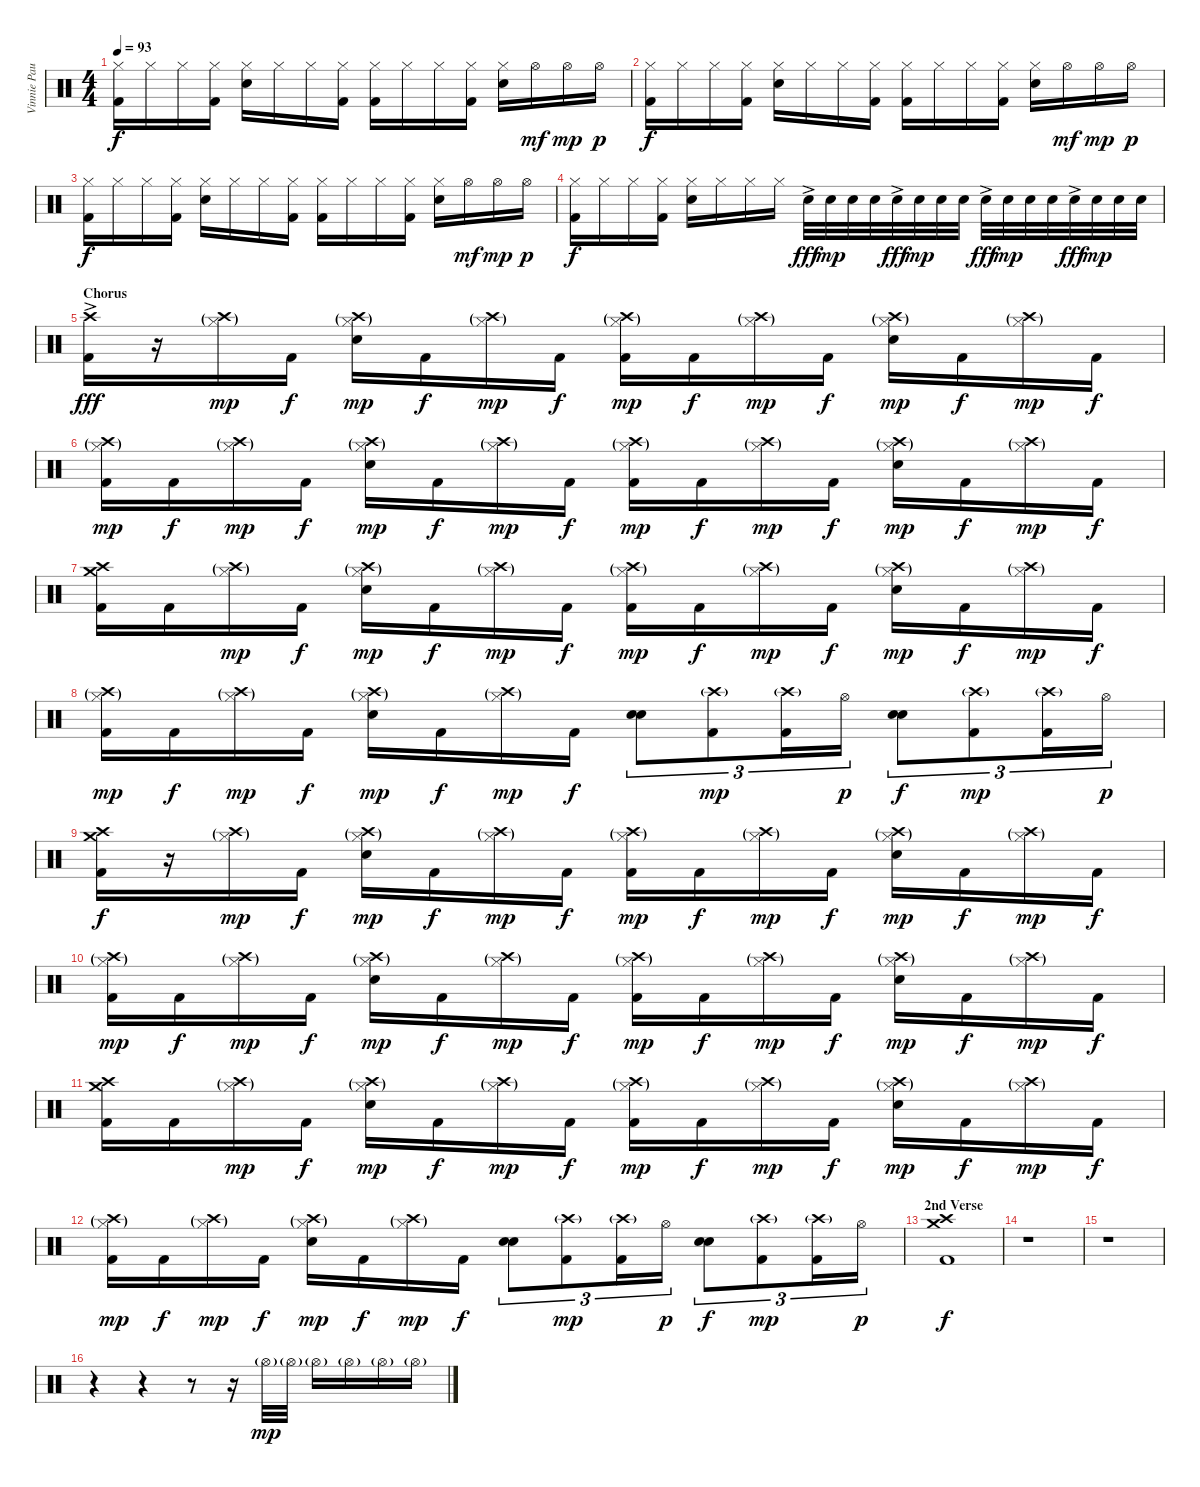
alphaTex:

\track ("Vinnie Paul" "Vinnie Pau") {instrument percussion}
\staff {score}
\articulation defaults
\ts (4 4)
\tempo 93
\clef neutral
\ks c
("Hi-Hat (closed)" "Kick (hit) 2").16{dy f} "Hi-Hat (closed)".16 "Hi-Hat (closed)".16 ("Hi-Hat (closed)" "Kick (hit) 2").16 ("Hi-Hat (closed)" "Electric Snare (hit)").16 "Hi-Hat (closed)".16 "Hi-Hat (closed)".16 ("Hi-Hat (closed)" "Kick (hit) 2").16 ("Hi-Hat (closed)" "Kick (hit) 2").16 "Hi-Hat (closed)".16 "Hi-Hat (closed)".16 ("Hi-Hat (closed)" "Kick (hit) 2").16 ("Hi-Hat (closed)" "Electric Snare (hit)").16 "Hi-Hat (open)".16{dy mf} "Hi-Hat (open)".16{dy mp} "Hi-Hat (open)".16{dy p} |
("Hi-Hat (closed)" "Kick (hit) 2").16{dy f} "Hi-Hat (closed)".16 "Hi-Hat (closed)".16 ("Hi-Hat (closed)" "Kick (hit) 2").16 ("Hi-Hat (closed)" "Electric Snare (hit)").16 "Hi-Hat (closed)".16 "Hi-Hat (closed)".16 ("Hi-Hat (closed)" "Kick (hit) 2").16 ("Hi-Hat (closed)" "Kick (hit) 2").16 "Hi-Hat (closed)".16 "Hi-Hat (closed)".16 ("Hi-Hat (closed)" "Kick (hit) 2").16 ("Hi-Hat (closed)" "Electric Snare (hit)").16 "Hi-Hat (open)".16{dy mf} "Hi-Hat (open)".16{dy mp} "Hi-Hat (open)".16{dy p} |
("Hi-Hat (closed)" "Kick (hit) 2").16{dy f} "Hi-Hat (closed)".16 "Hi-Hat (closed)".16 ("Hi-Hat (closed)" "Kick (hit) 2").16 ("Hi-Hat (closed)" "Electric Snare (hit)").16 "Hi-Hat (closed)".16 "Hi-Hat (closed)".16 ("Hi-Hat (closed)" "Kick (hit) 2").16 ("Hi-Hat (closed)" "Kick (hit) 2").16 "Hi-Hat (closed)".16 "Hi-Hat (closed)".16 ("Hi-Hat (closed)" "Kick (hit) 2").16 ("Hi-Hat (closed)" "Electric Snare (hit)").16 "Hi-Hat (open)".16{dy mf} "Hi-Hat (open)".16{dy mp} "Hi-Hat (open)".16{dy p} |
("Hi-Hat (closed)" "Kick (hit) 2").16{dy f} "Hi-Hat (closed)".16 "Hi-Hat (closed)".16 ("Hi-Hat (closed)" "Kick (hit) 2").16 ("Hi-Hat (closed)" "Electric Snare (hit)").16 "Hi-Hat (closed)".16 "Hi-Hat (closed)".16 "Hi-Hat (closed)".16 "Electric Snare (hit)"{ac}.32{dy fff} "Electric Snare (hit)".32{dy mp} "Electric Snare (hit)".32 "Electric Snare (hit)".32 "Electric Snare (hit)"{ac}.32{dy fff} "Electric Snare (hit)".32{dy mp} "Electric Snare (hit)".32 "Electric Snare (hit)".32 "Electric Snare (hit)"{ac}.32{dy fff} "Electric Snare (hit)".32{dy mp} "Electric Snare (hit)".32 "Electric Snare (hit)".32 "Electric Snare (hit)"{ac}.32{dy fff} "Electric Snare (hit)".32{dy mp} "Electric Snare (hit)".32 "Electric Snare (hit)".32 |
\section ("" "Chorus")
("Crash high (hit)" "Kick (hit) 2"{ac}).16{dy fff} r.16 ("Crash high (hit)"{g} "Hi-Hat (closed)"{g}).16{dy mp} "Kick (hit) 2".16{dy f} ("Crash high (hit)"{g} "Hi-Hat (closed)"{g} "Electric Snare (hit)").16{dy mp} "Kick (hit) 2".16{dy f} ("Crash high (hit)"{g} "Hi-Hat (closed)"{g}).16{dy mp} "Kick (hit) 2".16{dy f} ("Crash high (hit)"{g} "Hi-Hat (closed)"{g} "Kick (hit) 2").16{dy mp} "Kick (hit) 2".16{dy f} ("Crash high (hit)"{g} "Hi-Hat (closed)"{g}).16{dy mp} "Kick (hit) 2".16{dy f} ("Crash high (hit)"{g} "Hi-Hat (closed)"{g} "Electric Snare (hit)").16{dy mp} "Kick (hit) 2".16{dy f} ("Crash high (hit)"{g} "Hi-Hat (closed)"{g}).16{dy mp} "Kick (hit) 2".16{dy f} |
("Crash high (hit)"{g} "Hi-Hat (closed)"{g} "Kick (hit) 2").16{dy mp} "Kick (hit) 2".16{dy f} ("Crash high (hit)"{g} "Hi-Hat (closed)"{g}).16{dy mp} "Kick (hit) 2".16{dy f} ("Crash high (hit)"{g} "Hi-Hat (closed)"{g} "Electric Snare (hit)").16{dy mp} "Kick (hit) 2".16{dy f} ("Crash high (hit)"{g} "Hi-Hat (closed)"{g}).16{dy mp} "Kick (hit) 2".16{dy f} ("Crash high (hit)"{g} "Hi-Hat (closed)"{g} "Kick (hit) 2").16{dy mp} "Kick (hit) 2".16{dy f} ("Crash high (hit)"{g} "Hi-Hat (closed)"{g}).16{dy mp} "Kick (hit) 2".16{dy f} ("Crash high (hit)"{g} "Hi-Hat (closed)"{g} "Electric Snare (hit)").16{dy mp} "Kick (hit) 2".16{dy f} ("Crash high (hit)"{g} "Hi-Hat (closed)"{g}).16{dy mp} "Kick (hit) 2".16{dy f} |
("Crash high (hit)" "Crash medium (hit)" "Kick (hit) 2").16 "Kick (hit) 2".16 ("Crash high (hit)"{g} "Hi-Hat (closed)"{g}).16{dy mp} "Kick (hit) 2".16{dy f} ("Crash high (hit)"{g} "Hi-Hat (closed)"{g} "Electric Snare (hit)").16{dy mp} "Kick (hit) 2".16{dy f} ("Crash high (hit)"{g} "Hi-Hat (closed)"{g}).16{dy mp} "Kick (hit) 2".16{dy f} ("Crash high (hit)"{g} "Hi-Hat (closed)"{g} "Kick (hit) 2").16{dy mp} "Kick (hit) 2".16{dy f} ("Crash high (hit)"{g} "Hi-Hat (closed)"{g}).16{dy mp} "Kick (hit) 2".16{dy f} ("Crash high (hit)"{g} "Hi-Hat (closed)"{g} "Electric Snare (hit)").16{dy mp} "Kick (hit) 2".16{dy f} ("Crash high (hit)"{g} "Hi-Hat (closed)"{g}).16{dy mp} "Kick (hit) 2".16{dy f} |
("Crash high (hit)"{g} "Hi-Hat (closed)"{g} "Kick (hit) 2").16{dy mp} "Kick (hit) 2".16{dy f} ("Crash high (hit)"{g} "Hi-Hat (closed)"{g}).16{dy mp} "Kick (hit) 2".16{dy f} ("Crash high (hit)"{g} "Hi-Hat (closed)"{g} "Electric Snare (hit)").16{dy mp} "Kick (hit) 2".16{dy f} ("Crash high (hit)"{g} "Hi-Hat (closed)"{g}).16{dy mp} "Kick (hit) 2".16{dy f} ("Electric Snare (hit)" "Electric Snare (hit)").8{tu (3 2) bd 480} ("Crash high (hit)"{g} "Kick (hit) 2").8{tu (3 2) dy mp} ("Crash high (hit)"{g} "Kick (hit) 2").16{tu (3 2)} "Hi-Hat (open)".16{tu (3 2) dy p} ("Electric Snare (hit)" "Electric Snare (hit)").8{tu (3 2) bd 480 dy f} ("Crash high (hit)"{g} "Kick (hit) 2").8{tu (3 2) dy mp} ("Crash high (hit)"{g} "Kick (hit) 2").16{tu (3 2)} "Hi-Hat (open)".16{tu (3 2) dy p} |
("Crash high (hit)" "Crash medium (hit)" "Kick (hit) 2").16{dy f} r.16 ("Crash high (hit)"{g} "Hi-Hat (closed)"{g}).16{dy mp} "Kick (hit) 2".16{dy f} ("Crash high (hit)"{g} "Hi-Hat (closed)"{g} "Electric Snare (hit)").16{dy mp} "Kick (hit) 2".16{dy f} ("Crash high (hit)"{g} "Hi-Hat (closed)"{g}).16{dy mp} "Kick (hit) 2".16{dy f} ("Crash high (hit)"{g} "Hi-Hat (closed)"{g} "Kick (hit) 2").16{dy mp} "Kick (hit) 2".16{dy f} ("Crash high (hit)"{g} "Hi-Hat (closed)"{g}).16{dy mp} "Kick (hit) 2".16{dy f} ("Crash high (hit)"{g} "Hi-Hat (closed)"{g} "Electric Snare (hit)").16{dy mp} "Kick (hit) 2".16{dy f} ("Crash high (hit)"{g} "Hi-Hat (closed)"{g}).16{dy mp} "Kick (hit) 2".16{dy f} |
("Crash high (hit)"{g} "Hi-Hat (closed)"{g} "Kick (hit) 2").16{dy mp} "Kick (hit) 2".16{dy f} ("Crash high (hit)"{g} "Hi-Hat (closed)"{g}).16{dy mp} "Kick (hit) 2".16{dy f} ("Crash high (hit)"{g} "Hi-Hat (closed)"{g} "Electric Snare (hit)").16{dy mp} "Kick (hit) 2".16{dy f} ("Crash high (hit)"{g} "Hi-Hat (closed)"{g}).16{dy mp} "Kick (hit) 2".16{dy f} ("Crash high (hit)"{g} "Hi-Hat (closed)"{g} "Kick (hit) 2").16{dy mp} "Kick (hit) 2".16{dy f} ("Crash high (hit)"{g} "Hi-Hat (closed)"{g}).16{dy mp} "Kick (hit) 2".16{dy f} ("Crash high (hit)"{g} "Hi-Hat (closed)"{g} "Electric Snare (hit)").16{dy mp} "Kick (hit) 2".16{dy f} ("Crash high (hit)"{g} "Hi-Hat (closed)"{g}).16{dy mp} "Kick (hit) 2".16{dy f} |
("Crash high (hit)" "Crash medium (hit)" "Kick (hit) 2").16 "Kick (hit) 2".16 ("Crash high (hit)"{g} "Hi-Hat (closed)"{g}).16{dy mp} "Kick (hit) 2".16{dy f} ("Crash high (hit)"{g} "Hi-Hat (closed)"{g} "Electric Snare (hit)").16{dy mp} "Kick (hit) 2".16{dy f} ("Crash high (hit)"{g} "Hi-Hat (closed)"{g}).16{dy mp} "Kick (hit) 2".16{dy f} ("Crash high (hit)"{g} "Hi-Hat (closed)"{g} "Kick (hit) 2").16{dy mp} "Kick (hit) 2".16{dy f} ("Crash high (hit)"{g} "Hi-Hat (closed)"{g}).16{dy mp} "Kick (hit) 2".16{dy f} ("Crash high (hit)"{g} "Hi-Hat (closed)"{g} "Electric Snare (hit)").16{dy mp} "Kick (hit) 2".16{dy f} ("Crash high (hit)"{g} "Hi-Hat (closed)"{g}).16{dy mp} "Kick (hit) 2".16{dy f} |
("Crash high (hit)"{g} "Hi-Hat (closed)"{g} "Kick (hit) 2").16{dy mp} "Kick (hit) 2".16{dy f} ("Crash high (hit)"{g} "Hi-Hat (closed)"{g}).16{dy mp} "Kick (hit) 2".16{dy f} ("Crash high (hit)"{g} "Hi-Hat (closed)"{g} "Electric Snare (hit)").16{dy mp} "Kick (hit) 2".16{dy f} ("Crash high (hit)"{g} "Hi-Hat (closed)"{g}).16{dy mp} "Kick (hit) 2".16{dy f} ("Electric Snare (hit)" "Electric Snare (hit)").8{tu (3 2) bd 480} ("Crash high (hit)"{g} "Kick (hit) 2").8{tu (3 2) dy mp} ("Crash high (hit)"{g} "Kick (hit) 2").16{tu (3 2)} "Hi-Hat (open)".16{tu (3 2) dy p} ("Electric Snare (hit)" "Electric Snare (hit)").8{tu (3 2) bd 480 dy f} ("Crash high (hit)"{g} "Kick (hit) 2").8{tu (3 2) dy mp} ("Crash high (hit)"{g} "Kick (hit) 2").16{tu (3 2)} "Hi-Hat (open)".16{tu (3 2) dy p} |
\section ("" "2nd Verse")
("Crash high (hit)" "Crash medium (hit)" "Kick (hit) 2").1{dy f} |
r.1 |
r.1 |
r.4 r.4 r.8 r.16 "Hi-Hat (open)"{g}.32{dy mp} "Hi-Hat (open)"{g}.32 "Hi-Hat (open)"{g}.16 "Hi-Hat (open)"{g}.16 "Hi-Hat (open)"{g}.16 "Hi-Hat (open)"{g}.16
